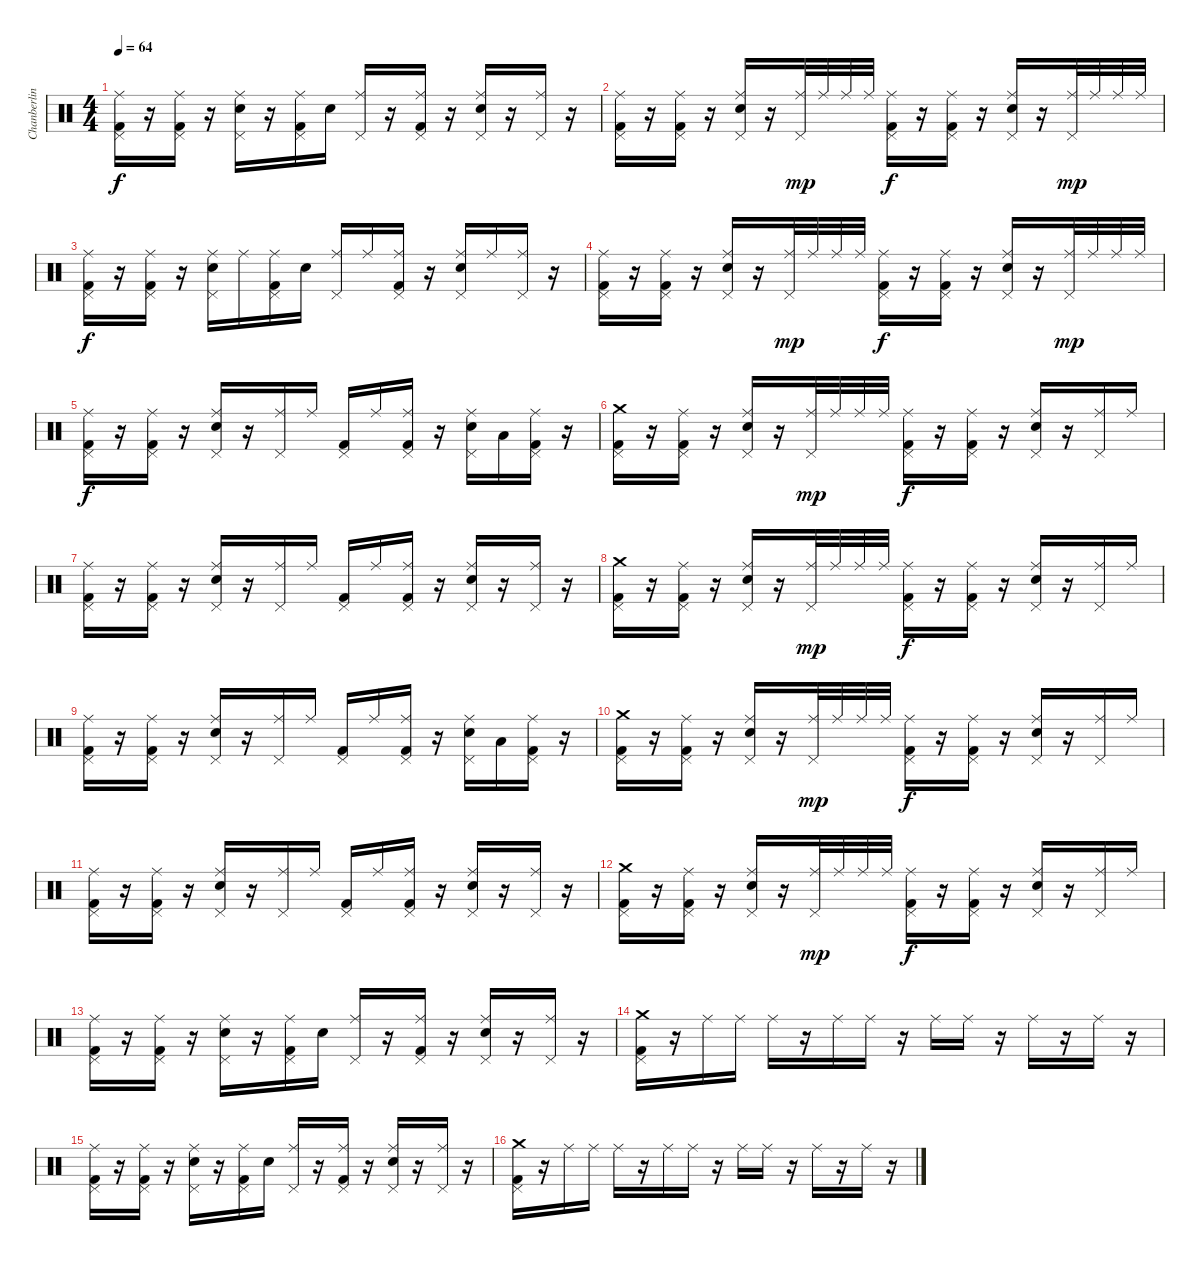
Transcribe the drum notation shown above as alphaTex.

\track ("Chanberlin" "Chanberlin") {instrument percussion}
\staff {score}
\articulation defaults
\ts (4 4)
\tempo 64
\clef neutral
\ks c
("Ride (middle)" "Pedal Hi-Hat (hit)" "Kick (hit) 2").16{dy f} r.16 ("Ride (middle)" "Pedal Hi-Hat (hit)" "Kick (hit) 2").16 r.16 ("Ride (middle)" "Pedal Hi-Hat (hit)" "Snare (hit) 2").16 r.16 ("Ride (middle)" "Pedal Hi-Hat (hit)" "Kick (hit) 2").16 "Snare (hit) 2".16 ("Ride (middle)" "Pedal Hi-Hat (hit)").16 r.16 ("Ride (middle)" "Pedal Hi-Hat (hit)" "Kick (hit) 2").16 r.16 ("Ride (middle)" "Pedal Hi-Hat (hit)" "Snare (hit) 2").16 r.16 ("Ride (middle)" "Pedal Hi-Hat (hit)").16 r.16 |
("Ride (middle)" "Pedal Hi-Hat (hit)" "Kick (hit) 2").16 r.16 ("Ride (middle)" "Pedal Hi-Hat (hit)" "Kick (hit) 2").16 r.16 ("Ride (middle)" "Pedal Hi-Hat (hit)" "Snare (hit) 2").16 r.16 ("Ride (middle)" "Pedal Hi-Hat (hit)").32{dy mp} "Ride (middle)".32 "Ride (middle)".32 "Ride (middle)".32 ("Ride (middle)" "Pedal Hi-Hat (hit)" "Kick (hit) 2").16{dy f} r.16 ("Ride (middle)" "Pedal Hi-Hat (hit)" "Kick (hit) 2").16 r.16 ("Ride (middle)" "Pedal Hi-Hat (hit)" "Snare (hit) 2").16 r.16 ("Ride (middle)" "Pedal Hi-Hat (hit)").32{dy mp} "Ride (middle)".32 "Ride (middle)".32 "Ride (middle)".32 |
("Ride (middle)" "Pedal Hi-Hat (hit)" "Kick (hit) 2").16{dy f} r.16 ("Ride (middle)" "Pedal Hi-Hat (hit)" "Kick (hit) 2").16 r.16 ("Ride (middle)" "Pedal Hi-Hat (hit)" "Snare (hit) 2").16 "Ride (middle)".16 ("Ride (middle)" "Pedal Hi-Hat (hit)" "Kick (hit) 2").16 "Snare (hit) 2".16 ("Ride (middle)" "Pedal Hi-Hat (hit)").16 "Ride (middle)".16 ("Ride (middle)" "Pedal Hi-Hat (hit)" "Kick (hit) 2").16 r.16 ("Ride (middle)" "Pedal Hi-Hat (hit)" "Snare (hit) 2").16 "Ride (middle)".16 ("Ride (middle)" "Pedal Hi-Hat (hit)").16 r.16 |
("Ride (middle)" "Pedal Hi-Hat (hit)" "Kick (hit) 2").16 r.16 ("Ride (middle)" "Pedal Hi-Hat (hit)" "Kick (hit) 2").16 r.16 ("Ride (middle)" "Pedal Hi-Hat (hit)" "Snare (hit) 2").16 r.16 ("Ride (middle)" "Pedal Hi-Hat (hit)").32{dy mp} "Ride (middle)".32 "Ride (middle)".32 "Ride (middle)".32 ("Ride (middle)" "Pedal Hi-Hat (hit)" "Kick (hit) 2").16{dy f} r.16 ("Ride (middle)" "Pedal Hi-Hat (hit)" "Kick (hit) 2").16 r.16 ("Ride (middle)" "Pedal Hi-Hat (hit)" "Snare (hit) 2").16 r.16 ("Ride (middle)" "Pedal Hi-Hat (hit)").32{dy mp} "Ride (middle)".32 "Ride (middle)".32 "Ride (middle)".32 |
("Ride (middle)" "Pedal Hi-Hat (hit)" "Kick (hit) 2").16{dy f} r.16 ("Ride (middle)" "Pedal Hi-Hat (hit)" "Kick (hit) 2").16 r.16 ("Ride (middle)" "Pedal Hi-Hat (hit)" "Snare (hit) 2").16 r.16 ("Ride (middle)" "Pedal Hi-Hat (hit)").16 "Ride (middle)".16 ("Pedal Hi-Hat (hit)" "Kick (hit) 2").16 "Ride (middle)".16 ("Ride (middle)" "Pedal Hi-Hat (hit)" "Kick (hit) 2").16 r.16 ("Ride (middle)" "Pedal Hi-Hat (hit)" "Snare (hit) 2").16 "Low Tom (hit)".16 ("Ride (middle)" "Pedal Hi-Hat (hit)" "Kick (hit) 2").16 r.16 |
("Crash medium (hit)" "Pedal Hi-Hat (hit)" "Kick (hit) 2").16{volume 10} r.16 ("Ride (middle)" "Pedal Hi-Hat (hit)" "Kick (hit) 2").16 r.16 ("Ride (middle)" "Pedal Hi-Hat (hit)" "Snare (hit) 2").16 r.16 ("Ride (middle)" "Pedal Hi-Hat (hit)").32{dy mp} "Ride (middle)".32 "Ride (middle)".32 "Ride (middle)".32 ("Ride (middle)" "Pedal Hi-Hat (hit)" "Kick (hit) 2").16{dy f} r.16 ("Ride (middle)" "Pedal Hi-Hat (hit)" "Kick (hit) 2").16 r.16 ("Ride (middle)" "Pedal Hi-Hat (hit)" "Snare (hit) 2").16 r.16 ("Ride (middle)" "Pedal Hi-Hat (hit)").16 "Ride (middle)".16 |
("Ride (middle)" "Pedal Hi-Hat (hit)" "Kick (hit) 2").16 r.16 ("Ride (middle)" "Pedal Hi-Hat (hit)" "Kick (hit) 2").16 r.16 ("Ride (middle)" "Pedal Hi-Hat (hit)" "Snare (hit) 2").16 r.16 ("Ride (middle)" "Pedal Hi-Hat (hit)").16 "Ride (middle)".16 ("Pedal Hi-Hat (hit)" "Kick (hit) 2").16 "Ride (middle)".16 ("Ride (middle)" "Pedal Hi-Hat (hit)" "Kick (hit) 2").16 r.16 ("Ride (middle)" "Pedal Hi-Hat (hit)" "Snare (hit) 2").16 r.16 ("Ride (middle)" "Pedal Hi-Hat (hit)").16 r.16 |
("Crash medium (hit)" "Pedal Hi-Hat (hit)" "Kick (hit) 2").16 r.16 ("Ride (middle)" "Pedal Hi-Hat (hit)" "Kick (hit) 2").16 r.16 ("Ride (middle)" "Pedal Hi-Hat (hit)" "Snare (hit) 2").16 r.16 ("Ride (middle)" "Pedal Hi-Hat (hit)").32{dy mp} "Ride (middle)".32 "Ride (middle)".32 "Ride (middle)".32 ("Ride (middle)" "Pedal Hi-Hat (hit)" "Kick (hit) 2").16{dy f} r.16 ("Ride (middle)" "Pedal Hi-Hat (hit)" "Kick (hit) 2").16 r.16 ("Ride (middle)" "Pedal Hi-Hat (hit)" "Snare (hit) 2").16 r.16 ("Ride (middle)" "Pedal Hi-Hat (hit)").16 "Ride (middle)".16 |
("Ride (middle)" "Pedal Hi-Hat (hit)" "Kick (hit) 2").16 r.16 ("Ride (middle)" "Pedal Hi-Hat (hit)" "Kick (hit) 2").16 r.16 ("Ride (middle)" "Pedal Hi-Hat (hit)" "Snare (hit) 2").16 r.16 ("Ride (middle)" "Pedal Hi-Hat (hit)").16 "Ride (middle)".16 ("Pedal Hi-Hat (hit)" "Kick (hit) 2").16 "Ride (middle)".16 ("Ride (middle)" "Pedal Hi-Hat (hit)" "Kick (hit) 2").16 r.16 ("Ride (middle)" "Pedal Hi-Hat (hit)" "Snare (hit) 2").16 "Low Tom (hit)".16 ("Ride (middle)" "Pedal Hi-Hat (hit)" "Kick (hit) 2").16 r.16 |
("Crash medium (hit)" "Pedal Hi-Hat (hit)" "Kick (hit) 2").16 r.16 ("Ride (middle)" "Pedal Hi-Hat (hit)" "Kick (hit) 2").16 r.16 ("Ride (middle)" "Pedal Hi-Hat (hit)" "Snare (hit) 2").16 r.16 ("Ride (middle)" "Pedal Hi-Hat (hit)").32{dy mp} "Ride (middle)".32 "Ride (middle)".32 "Ride (middle)".32 ("Ride (middle)" "Pedal Hi-Hat (hit)" "Kick (hit) 2").16{dy f} r.16 ("Ride (middle)" "Pedal Hi-Hat (hit)" "Kick (hit) 2").16 r.16 ("Ride (middle)" "Pedal Hi-Hat (hit)" "Snare (hit) 2").16 r.16 ("Ride (middle)" "Pedal Hi-Hat (hit)").16 "Ride (middle)".16 |
("Ride (middle)" "Pedal Hi-Hat (hit)" "Kick (hit) 2").16 r.16 ("Ride (middle)" "Pedal Hi-Hat (hit)" "Kick (hit) 2").16 r.16 ("Ride (middle)" "Pedal Hi-Hat (hit)" "Snare (hit) 2").16 r.16 ("Ride (middle)" "Pedal Hi-Hat (hit)").16 "Ride (middle)".16 ("Pedal Hi-Hat (hit)" "Kick (hit) 2").16 "Ride (middle)".16 ("Ride (middle)" "Pedal Hi-Hat (hit)" "Kick (hit) 2").16 r.16 ("Ride (middle)" "Pedal Hi-Hat (hit)" "Snare (hit) 2").16 r.16 ("Ride (middle)" "Pedal Hi-Hat (hit)").16 r.16 |
("Crash medium (hit)" "Pedal Hi-Hat (hit)" "Kick (hit) 2").16 r.16 ("Ride (middle)" "Pedal Hi-Hat (hit)" "Kick (hit) 2").16 r.16 ("Ride (middle)" "Pedal Hi-Hat (hit)" "Snare (hit) 2").16 r.16 ("Ride (middle)" "Pedal Hi-Hat (hit)").32{dy mp} "Ride (middle)".32 "Ride (middle)".32 "Ride (middle)".32 ("Ride (middle)" "Pedal Hi-Hat (hit)" "Kick (hit) 2").16{dy f} r.16 ("Ride (middle)" "Pedal Hi-Hat (hit)" "Kick (hit) 2").16 r.16 ("Ride (middle)" "Pedal Hi-Hat (hit)" "Snare (hit) 2").16 r.16 ("Ride (middle)" "Pedal Hi-Hat (hit)").16 "Ride (middle)".16 |
("Ride (middle)" "Pedal Hi-Hat (hit)" "Kick (hit) 2").16 r.16 ("Ride (middle)" "Pedal Hi-Hat (hit)" "Kick (hit) 2").16 r.16 ("Ride (middle)" "Pedal Hi-Hat (hit)" "Snare (hit) 2").16 r.16 ("Ride (middle)" "Pedal Hi-Hat (hit)" "Kick (hit) 2").16 "Snare (hit) 2".16 ("Ride (middle)" "Pedal Hi-Hat (hit)").16 r.16 ("Ride (middle)" "Pedal Hi-Hat (hit)" "Kick (hit) 2").16 r.16 ("Ride (middle)" "Pedal Hi-Hat (hit)" "Snare (hit) 2").16 r.16 ("Ride (middle)" "Pedal Hi-Hat (hit)").16 r.16 |
("Crash medium (hit)" "Pedal Hi-Hat (hit)" "Kick (hit) 2").16 r.16 "Ride (middle)".16 "Ride (middle)".16 "Ride (middle)".16 r.16 "Ride (middle)".16 "Ride (middle)".16 r.16 "Ride (middle)".16 "Ride (middle)".16 r.16 "Ride (middle)".16 r.16 "Ride (middle)".16 r.16 |
("Ride (middle)" "Pedal Hi-Hat (hit)" "Kick (hit) 2").16 r.16 ("Ride (middle)" "Pedal Hi-Hat (hit)" "Kick (hit) 2").16 r.16 ("Ride (middle)" "Pedal Hi-Hat (hit)" "Snare (hit) 2").16 r.16 ("Ride (middle)" "Pedal Hi-Hat (hit)" "Kick (hit) 2").16 "Snare (hit) 2".16 ("Ride (middle)" "Pedal Hi-Hat (hit)").16 r.16 ("Ride (middle)" "Pedal Hi-Hat (hit)" "Kick (hit) 2").16 r.16 ("Ride (middle)" "Pedal Hi-Hat (hit)" "Snare (hit) 2").16 r.16 ("Ride (middle)" "Pedal Hi-Hat (hit)").16 r.16 |
("Crash medium (hit)" "Pedal Hi-Hat (hit)" "Kick (hit) 2").16 r.16 "Ride (middle)".16 "Ride (middle)".16 "Ride (middle)".16 r.16 "Ride (middle)".16 "Ride (middle)".16 r.16 "Ride (middle)".16 "Ride (middle)".16 r.16 "Ride (middle)".16 r.16 "Ride (middle)".16 r.16
